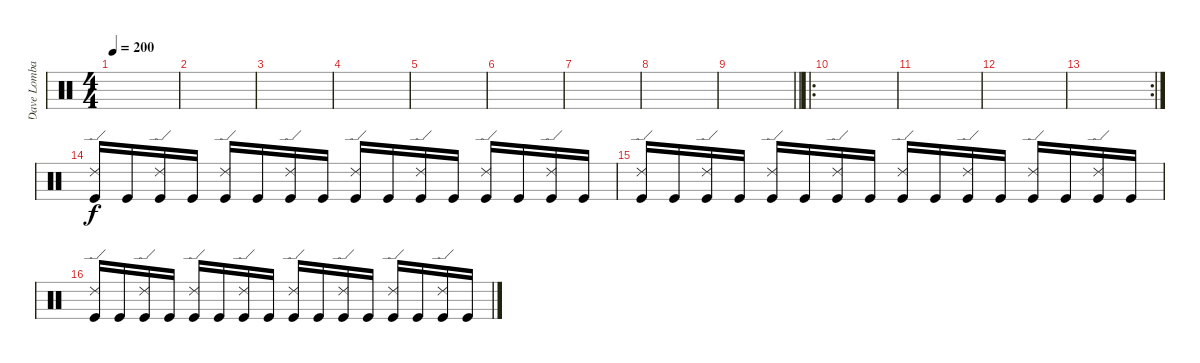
\track ("Dave Lombardo:" "Dave Lomba") {instrument percussion}
\staff {score}
\articulation defaults
\ts (4 4)
\tempo 200
\clef neutral
\ks c
|
|
|
|
|
|
|
|
\barLineRight lightlight
|
\ro
\section ("" "")
|
|
|
\rc 2
|
("Ride (edge) 2" "Kick (hit)").16 "Kick (hit)".16 ("Ride (edge) 2" "Kick (hit)").16 "Kick (hit)".16 ("Ride (edge) 2" "Kick (hit)").16 "Kick (hit)".16 ("Ride (edge) 2" "Kick (hit)").16 "Kick (hit)".16 ("Ride (edge) 2" "Kick (hit)").16 "Kick (hit)".16 ("Ride (edge) 2" "Kick (hit)").16 "Kick (hit)".16 ("Ride (edge) 2" "Kick (hit)").16 "Kick (hit)".16 ("Ride (edge) 2" "Kick (hit)").16 "Kick (hit)".16 |
("Ride (edge) 2" "Kick (hit)").16 "Kick (hit)".16 ("Ride (edge) 2" "Kick (hit)").16 "Kick (hit)".16 ("Ride (edge) 2" "Kick (hit)").16 "Kick (hit)".16 ("Ride (edge) 2" "Kick (hit)").16 "Kick (hit)".16 ("Ride (edge) 2" "Kick (hit)").16 "Kick (hit)".16 ("Ride (edge) 2" "Kick (hit)").16 "Kick (hit)".16 ("Ride (edge) 2" "Kick (hit)").16 "Kick (hit)".16 ("Ride (edge) 2" "Kick (hit)").16 "Kick (hit)".16 |
("Ride (edge) 2" "Kick (hit)").16 "Kick (hit)".16 ("Ride (edge) 2" "Kick (hit)").16 "Kick (hit)".16 ("Ride (edge) 2" "Kick (hit)").16 "Kick (hit)".16 ("Ride (edge) 2" "Kick (hit)").16 "Kick (hit)".16 ("Ride (edge) 2" "Kick (hit)").16 "Kick (hit)".16 ("Ride (edge) 2" "Kick (hit)").16 "Kick (hit)".16 ("Ride (edge) 2" "Kick (hit)").16 "Kick (hit)".16 ("Ride (edge) 2" "Kick (hit)").16 "Kick (hit)".16
